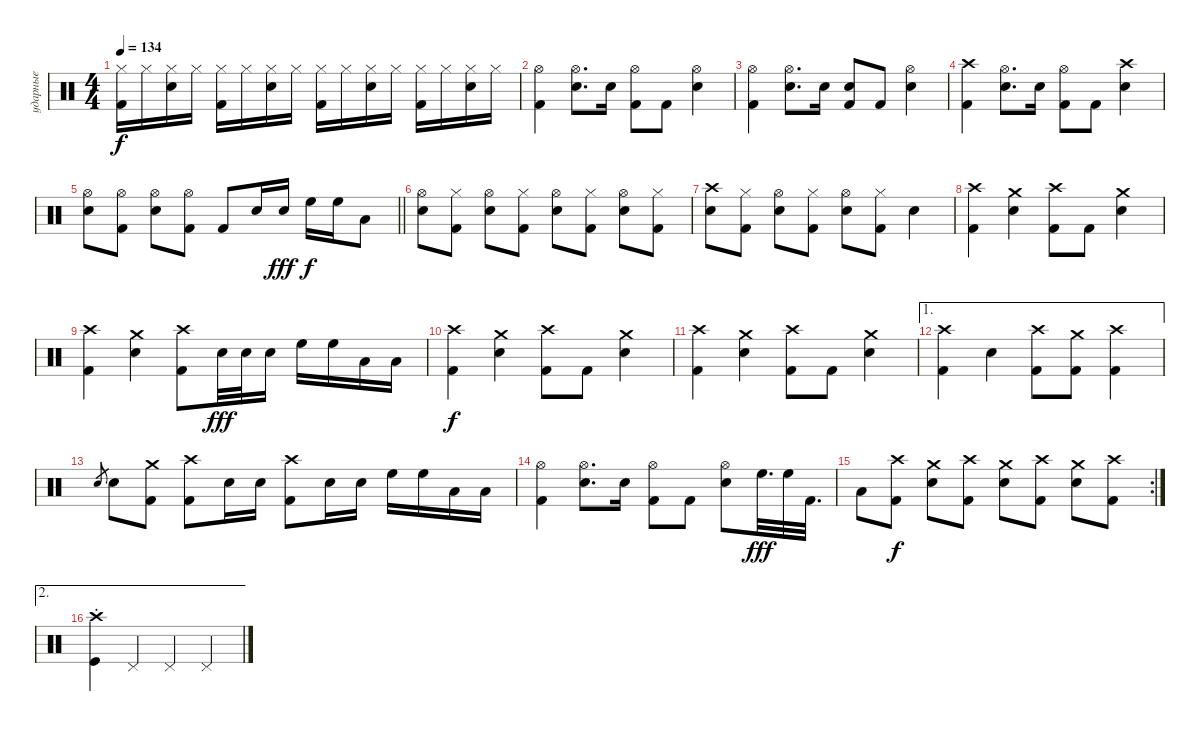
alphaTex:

\track ("ударные" "ударные") {instrument percussion}
\staff {score}
\articulation defaults
\ts (4 4)
\tempo 134
\clef neutral
\ks aminor
("Hi-Hat (closed)" "Kick (hit) 2").16{dy f} "Hi-Hat (closed)".16 ("Hi-Hat (closed)" "Electric Snare (hit)").16 "Hi-Hat (closed)".16 ("Hi-Hat (closed)" "Kick (hit) 2").16 "Hi-Hat (closed)".16 ("Hi-Hat (closed)" "Electric Snare (hit)").16 "Hi-Hat (closed)".16 ("Hi-Hat (closed)" "Kick (hit) 2").16 "Hi-Hat (closed)".16 ("Hi-Hat (closed)" "Electric Snare (hit)").16 "Hi-Hat (closed)".16 ("Hi-Hat (closed)" "Kick (hit) 2").16 "Hi-Hat (closed)".16 ("Hi-Hat (closed)" "Electric Snare (hit)").16 "Hi-Hat (closed)".16 |
("Hi-Hat (open)" "Kick (hit) 2").4 ("Hi-Hat (open)" "Electric Snare (hit)").8{d} "Snare (hit) 2".16 ("Hi-Hat (open)" "Kick (hit) 2").8 "Kick (hit) 2".8 ("Hi-Hat (open)" "Electric Snare (hit)").4 |
("Hi-Hat (open)" "Kick (hit) 2").4 ("Hi-Hat (open)" "Electric Snare (hit)").8{d} "Snare (hit) 2".16 ("Snare (hit) 2" "Kick (hit) 2").8 "Kick (hit) 2".8 ("Hi-Hat (open)" "Electric Snare (hit)").4 |
("Crash high (hit)" "Kick (hit) 2").4 ("Hi-Hat (open)" "Electric Snare (hit)").8{d} "Snare (hit) 2".16 ("Hi-Hat (open)" "Kick (hit) 2").8 "Kick (hit) 2".8 ("Crash high (hit)" "Electric Snare (hit)").4 |
\barLineRight lightlight
("Hi-Hat (open)" "Electric Snare (hit)").8 ("Hi-Hat (open)" "Kick (hit) 2").8 ("Hi-Hat (open)" "Electric Snare (hit)").8 ("Hi-Hat (open)" "Kick (hit) 2").8 "Kick (hit) 2".8 "Snare (hit) 2".16 "Snare (hit) 2".16{dy fff} "High Floor Tom (hit)".16{dy f} "High Floor Tom (hit)".16 "Low Floor Tom (hit)".8 |
("Hi-Hat (open)" "Electric Snare (hit)").8 ("Hi-Hat (closed)" "Kick (hit) 2").8 ("Hi-Hat (open)" "Electric Snare (hit)").8 ("Hi-Hat (closed)" "Kick (hit) 2").8 ("Hi-Hat (open)" "Electric Snare (hit)").8 ("Hi-Hat (closed)" "Kick (hit) 2").8 ("Hi-Hat (open)" "Electric Snare (hit)").8 ("Hi-Hat (closed)" "Kick (hit) 2").8 |
("Crash high (hit)" "Electric Snare (hit)").8 ("Hi-Hat (closed)" "Kick (hit) 2").8 ("Hi-Hat (open)" "Electric Snare (hit)").8 ("Hi-Hat (closed)" "Kick (hit) 2").8 ("Hi-Hat (open)" "Electric Snare (hit)").8 ("Hi-Hat (closed)" "Kick (hit) 2").8 "Electric Snare (hit)".4 |
("Crash high (hit)" "Kick (hit) 2").4 ("Crash medium (hit)" "Electric Snare (hit)").4 ("Crash high (hit)" "Kick (hit) 2").8 "Kick (hit) 2".8 ("Crash medium (hit)" "Electric Snare (hit)").4 |
("Crash high (hit)" "Kick (hit) 2").4 ("Crash medium (hit)" "Electric Snare (hit)").4 ("Crash high (hit)" "Kick (hit) 2").8 "Electric Snare (hit)".32{dy fff} "Electric Snare (hit)".32 "Electric Snare (hit)".16 "High Floor Tom (hit)".16 "High Floor Tom (hit)".16 "Low Tom (hit)".16 "Low Tom (hit)".16 |
("Crash high (hit)" "Kick (hit) 2").4{dy f} ("Crash medium (hit)" "Electric Snare (hit)").4 ("Crash high (hit)" "Kick (hit) 2").8 "Kick (hit) 2".8 ("Crash medium (hit)" "Electric Snare (hit)").4 |
("Crash high (hit)" "Kick (hit) 2").4 ("Crash medium (hit)" "Electric Snare (hit)").4 ("Crash high (hit)" "Kick (hit) 2").8 "Kick (hit) 2".8 ("Crash medium (hit)" "Electric Snare (hit)").4 |
\ae 1
("Crash high (hit)" "Kick (hit) 2").4 "Electric Snare (hit)".4 ("Crash high (hit)" "Kick (hit) 2").8 ("Crash medium (hit)" "Kick (hit) 2").8 ("Crash high (hit)" "Kick (hit) 2").4 |
"Electric Snare (hit)".8{gr} "Electric Snare (hit)".8 ("Crash medium (hit)" "Kick (hit) 2").8 ("Crash high (hit)" "Kick (hit) 2").8 "Electric Snare (hit)".16 "Electric Snare (hit)".16 ("Crash high (hit)" "Kick (hit) 2").8 "Electric Snare (hit)".16 "Electric Snare (hit)".16 "High Floor Tom (hit)".16 "High Floor Tom (hit)".16 "Low Tom (hit)".16 "Low Tom (hit)".16 |
("Hi-Hat (open)" "Kick (hit) 2").4 ("Hi-Hat (open)" "Electric Snare (hit)").8{d} "Snare (hit) 2".16 ("Hi-Hat (open)" "Kick (hit) 2").8 "Kick (hit) 2".8 ("Hi-Hat (open)" "Electric Snare (hit)").8 "High Floor Tom (hit)".32{d dy fff} "High Floor Tom (hit)".32 "Kick (hit) 2".32{d} |
\rc 2 "Low Floor Tom (hit)".8
("Crash high (hit)" "Kick (hit) 2").8{dy f} ("Crash medium (hit)" "Electric Snare (hit)").8 ("Crash high (hit)" "Kick (hit) 2").8 ("Crash medium (hit)" "Electric Snare (hit)").8 ("Crash high (hit)" "Kick (hit) 2").8 ("Crash medium (hit)" "Electric Snare (hit)").8 ("Crash high (hit)" "Kick (hit) 2").8 |
\ae 2
("Kick (hit)"{st} "Crash high (hit)"{st}).4 "Pedal Hi-Hat (hit)".4 "Pedal Hi-Hat (hit)".4 "Pedal Hi-Hat (hit)".4
